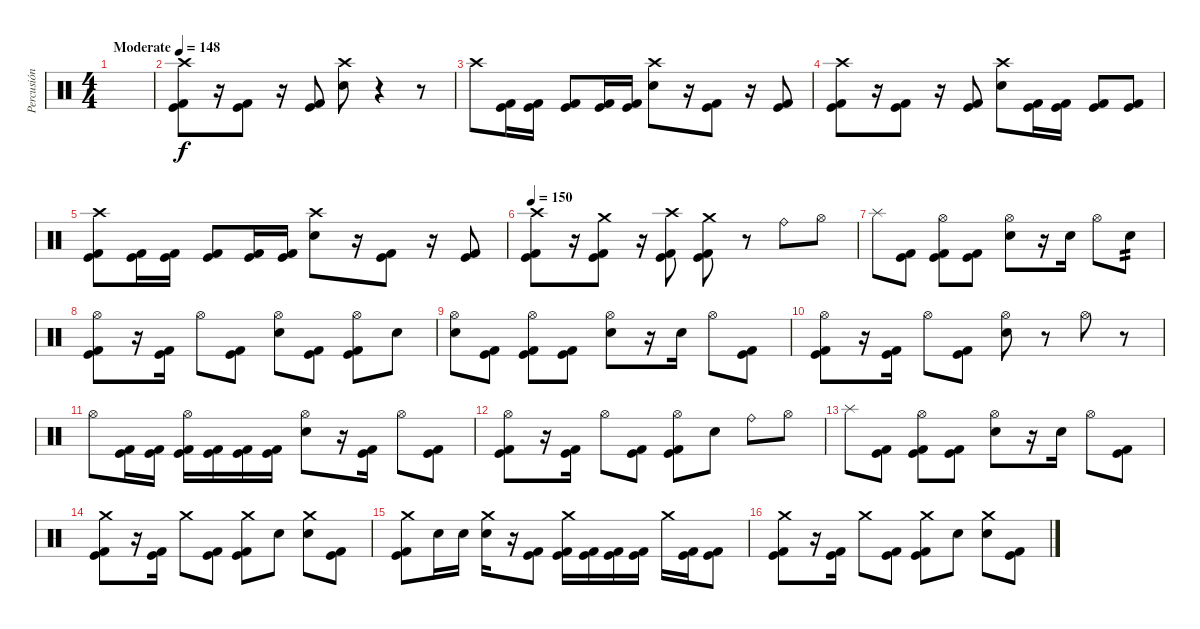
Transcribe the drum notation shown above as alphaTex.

\track ("Percusión" "Percusión") {instrument percussion}
\staff {score}
\articulation defaults
\ts (4 4)
\tempo (148 "Moderate")
\clef neutral
\ks c
|
("Crash high (hit)" "Kick (hit)" "Kick (hit) 2").8 r.16 ("Kick (hit)" "Kick (hit) 2").8 r.16 ("Kick (hit)" "Kick (hit) 2").8 ("Crash high (hit)" "Electric Snare (hit)").8 r.4 r.8 |
"Crash high (hit)".8 ("Kick (hit)" "Kick (hit) 2").16 ("Kick (hit)" "Kick (hit) 2").16 ("Kick (hit)" "Kick (hit) 2").8 ("Kick (hit)" "Kick (hit) 2").16 ("Kick (hit)" "Kick (hit) 2").16 ("Crash high (hit)" "Electric Snare (hit)").8 r.16 ("Kick (hit)" "Kick (hit) 2").8 r.16 ("Kick (hit)" "Kick (hit) 2").8 |
("Crash high (hit)" "Kick (hit)" "Kick (hit) 2").8 r.16 ("Kick (hit)" "Kick (hit) 2").8 r.16 ("Kick (hit)" "Kick (hit) 2").8 ("Crash high (hit)" "Electric Snare (hit)").8 ("Kick (hit)" "Kick (hit) 2").16 ("Kick (hit)" "Kick (hit) 2").16 ("Kick (hit)" "Kick (hit) 2").8 ("Kick (hit)" "Kick (hit) 2").8 |
("Crash high (hit)" "Kick (hit)" "Kick (hit) 2").8 ("Kick (hit)" "Kick (hit) 2").16 ("Kick (hit)" "Kick (hit) 2").16 ("Kick (hit)" "Kick (hit) 2").8 ("Kick (hit)" "Kick (hit) 2").16 ("Kick (hit)" "Kick (hit) 2").16 ("Crash high (hit)" "Electric Snare (hit)").8 r.16 ("Kick (hit)" "Kick (hit) 2").8 r.16 ("Kick (hit)" "Kick (hit) 2").8 |
\tempo 150
("Crash high (hit)" "Kick (hit)" "Kick (hit) 2").8 r.16 ("Crash medium (hit)" "Kick (hit)" "Kick (hit) 2").8 r.16 ("Crash high (hit)" "Kick (hit)" "Kick (hit) 2").8 ("Crash medium (hit)" "Kick (hit)" "Kick (hit) 2").8 r.8 "Ride (bell)".8 "Hi-Hat (open)".8 |
"Splash (hit)".8 ("Kick (hit)" "Kick (hit) 2").8 ("Hi-Hat (open)" "Kick (hit)" "Kick (hit) 2").8 ("Kick (hit)" "Kick (hit) 2").8 ("Hi-Hat (open)" "Electric Snare (hit)").8 r.16 "Electric Snare (hit)".16 "Hi-Hat (open)".8 "Electric Snare (hit)".8{tp 2} |
("Hi-Hat (open)" "Kick (hit)" "Kick (hit) 2").8 r.16 ("Kick (hit)" "Kick (hit) 2").16 "Hi-Hat (open)".8 ("Kick (hit)" "Kick (hit) 2").8 ("Hi-Hat (open)" "Electric Snare (hit)").8 ("Kick (hit)" "Kick (hit) 2").8 ("Hi-Hat (open)" "Kick (hit)" "Kick (hit) 2").8 "Electric Snare (hit)".8 |
("Hi-Hat (open)" "Electric Snare (hit)").8 ("Kick (hit)" "Kick (hit) 2").8 ("Hi-Hat (open)" "Kick (hit)" "Kick (hit) 2").8 ("Kick (hit)" "Kick (hit) 2").8 ("Hi-Hat (open)" "Electric Snare (hit)").8 r.16 "Electric Snare (hit)".16 "Hi-Hat (open)".8 ("Kick (hit)" "Kick (hit) 2").8 |
("Hi-Hat (open)" "Kick (hit)" "Kick (hit) 2").8 r.16 ("Kick (hit)" "Kick (hit) 2").16 "Hi-Hat (open)".8 ("Kick (hit)" "Kick (hit) 2").8 ("Hi-Hat (open)" "Electric Snare (hit)").8 r.8 "Hi-Hat (open)".8 r.8 |
"Hi-Hat (open)".8 ("Kick (hit)" "Kick (hit) 2").16 ("Kick (hit)" "Kick (hit) 2").16 ("Hi-Hat (open)" "Kick (hit)" "Kick (hit) 2").16 ("Kick (hit)" "Kick (hit) 2").16 ("Kick (hit)" "Kick (hit) 2").16 ("Kick (hit)" "Kick (hit) 2").16 ("Hi-Hat (open)" "Electric Snare (hit)").8 r.16 ("Kick (hit)" "Kick (hit) 2").16 "Hi-Hat (open)".8 ("Kick (hit)" "Kick (hit) 2").8 |
("Hi-Hat (open)" "Kick (hit)" "Kick (hit) 2").8 r.16 ("Kick (hit)" "Kick (hit) 2").16 "Hi-Hat (open)".8 ("Kick (hit)" "Kick (hit) 2").8 ("Hi-Hat (open)" "Kick (hit)" "Kick (hit) 2").8 "Electric Snare (hit)".8 "Ride (bell)".8 "Hi-Hat (open)".8 |
"Splash (hit)".8 ("Kick (hit)" "Kick (hit) 2").8 ("Hi-Hat (open)" "Kick (hit)" "Kick (hit) 2").8 ("Kick (hit)" "Kick (hit) 2").8 ("Hi-Hat (open)" "Electric Snare (hit)").8 r.16 "Electric Snare (hit)".16 "Hi-Hat (open)".8 ("Kick (hit)" "Kick (hit) 2").8 |
("Crash medium (hit)" "Kick (hit)" "Kick (hit) 2").8 r.16 ("Kick (hit)" "Kick (hit) 2").16 "Crash medium (hit)".8 ("Kick (hit)" "Kick (hit) 2").8 ("Crash medium (hit)" "Kick (hit)" "Kick (hit) 2").8 "Electric Snare (hit)".8 ("Crash medium (hit)" "Electric Snare (hit)").8 ("Kick (hit)" "Kick (hit) 2").8 |
("Crash medium (hit)" "Kick (hit)" "Kick (hit) 2").8 "Electric Snare (hit)".16 "Electric Snare (hit)".16 ("Crash medium (hit)" "Electric Snare (hit)").16 r.16 ("Kick (hit)" "Kick (hit) 2").8 ("Crash medium (hit)" "Kick (hit)" "Kick (hit) 2").16 ("Kick (hit)" "Kick (hit) 2").16 ("Kick (hit)" "Kick (hit) 2").16 ("Kick (hit)" "Kick (hit) 2").16 "Crash medium (hit)".16 ("Kick (hit)" "Kick (hit) 2").16 ("Kick (hit)" "Kick (hit) 2").8 |
("Crash medium (hit)" "Kick (hit)" "Kick (hit) 2").8 r.16 ("Kick (hit)" "Kick (hit) 2").16 "Crash medium (hit)".8 ("Kick (hit)" "Kick (hit) 2").8 ("Crash medium (hit)" "Kick (hit)" "Kick (hit) 2").8 "Electric Snare (hit)".8 ("Crash medium (hit)" "Electric Snare (hit)").8 ("Kick (hit)" "Kick (hit) 2").8
